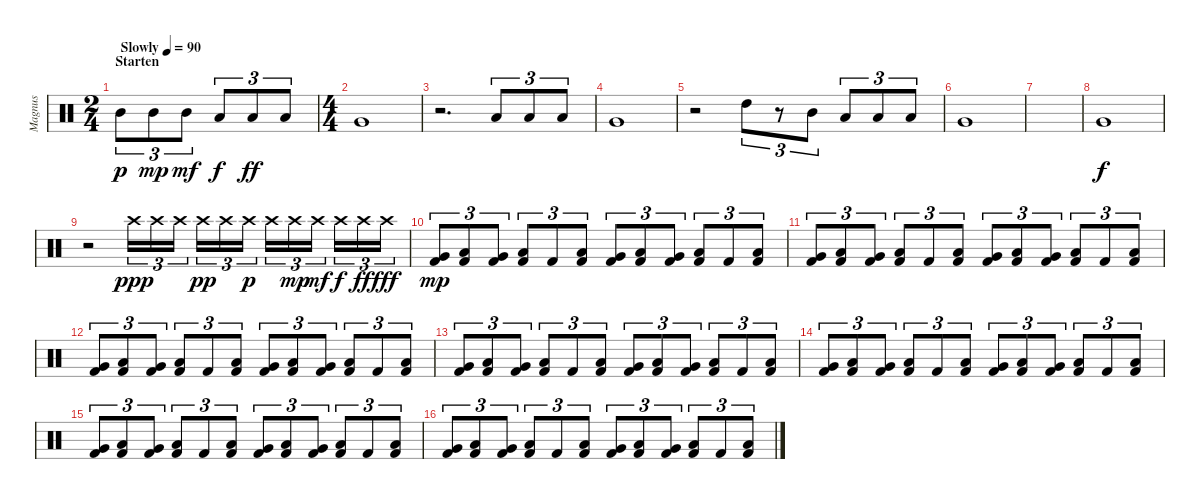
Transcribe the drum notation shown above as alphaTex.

\track ("Magnus" "Magnus") {instrument percussion}
\staff {score}
\articulation defaults
\ts (2 4)
\section ("" "Starten")
\tempo (90 "Slowly")
\tempo 120
\tempo (90 "Slowly")
\clef neutral
\ks c "Mid Tom (hit)".8{tu (3 2) dy p volume 15} "Mid Tom (hit)".8{tu (3 2) dy mp} "Mid Tom (hit)".8{tu (3 2) dy mf} "Low Tom (hit)".8{tu (3 2) dy f} "Low Tom (hit)".8{tu (3 2) dy ff} "Low Tom (hit)".8{tu (3 2)}
|
\ts (4 4)
"Very Low Tom (hit)".1 |
r.2{d} "Low Tom (hit)".8{tu (3 2)} "Low Tom (hit)".8{tu (3 2)} "Low Tom (hit)".8{tu (3 2)} |
"Very Low Tom (hit)".1 |
r.2 "High Tom (hit)".8{tu (3 2)} r.8{tu (3 2)} "Mid Tom (hit)".8{tu (3 2)} "Low Tom (hit)".8{tu (3 2)} "Low Tom (hit)".8{tu (3 2)} "Low Tom (hit)".8{tu (3 2)} |
"Very Low Tom (hit)".1 |
|
"Very Low Tom (hit)".1{dy f} |
r.2 "Crash high (hit)".16{tu (3 2) dy ppp volume 12} "Crash high (hit)".16{tu (3 2)} "Crash high (hit)".16{tu (3 2) beam splitsecondary} "Crash high (hit)".16{tu (3 2) dy pp} "Crash high (hit)".16{tu (3 2)} "Crash high (hit)".16{tu (3 2) dy p} "Crash high (hit)".16{tu (3 2)} "Crash high (hit)".16{tu (3 2) dy mp} "Crash high (hit)".16{tu (3 2) dy mf beam splitsecondary} "Crash high (hit)".16{tu (3 2) dy f} "Crash high (hit)".16{tu (3 2) dy ff} "Crash high (hit)".16{tu (3 2) dy fff} |
("Very Low Tom (hit)" "Kick (hit) 2").8{tu (3 2) dy mp} ("Low Tom (hit)" "Kick (hit) 2").8{tu (3 2)} ("Very Low Tom (hit)" "Kick (hit) 2").8{tu (3 2)} ("Low Floor Tom (hit)" "Kick (hit) 2").8{tu (3 2)} "Kick (hit) 2".8{tu (3 2)} ("Low Floor Tom (hit)" "Kick (hit) 2").8{tu (3 2)} ("Very Low Tom (hit)" "Kick (hit) 2").8{tu (3 2)} ("Low Tom (hit)" "Kick (hit) 2").8{tu (3 2)} ("Very Low Tom (hit)" "Kick (hit) 2").8{tu (3 2)} ("Low Floor Tom (hit)" "Kick (hit) 2").8{tu (3 2)} "Kick (hit) 2".8{tu (3 2)} ("Low Floor Tom (hit)" "Kick (hit) 2").8{tu (3 2)} |
("Very Low Tom (hit)" "Kick (hit) 2").8{tu (3 2)} ("Low Tom (hit)" "Kick (hit) 2").8{tu (3 2)} ("Very Low Tom (hit)" "Kick (hit) 2").8{tu (3 2)} ("Low Floor Tom (hit)" "Kick (hit) 2").8{tu (3 2)} "Kick (hit) 2".8{tu (3 2)} ("Low Floor Tom (hit)" "Kick (hit) 2").8{tu (3 2)} ("Very Low Tom (hit)" "Kick (hit) 2").8{tu (3 2)} ("Low Tom (hit)" "Kick (hit) 2").8{tu (3 2)} ("Very Low Tom (hit)" "Kick (hit) 2").8{tu (3 2)} ("Low Floor Tom (hit)" "Kick (hit) 2").8{tu (3 2)} "Kick (hit) 2".8{tu (3 2)} ("Low Floor Tom (hit)" "Kick (hit) 2").8{tu (3 2)} |
("Very Low Tom (hit)" "Kick (hit) 2").8{tu (3 2)} ("Low Tom (hit)" "Kick (hit) 2").8{tu (3 2)} ("Very Low Tom (hit)" "Kick (hit) 2").8{tu (3 2)} ("Low Floor Tom (hit)" "Kick (hit) 2").8{tu (3 2)} "Kick (hit) 2".8{tu (3 2)} ("Low Floor Tom (hit)" "Kick (hit) 2").8{tu (3 2)} ("Very Low Tom (hit)" "Kick (hit) 2").8{tu (3 2)} ("Low Tom (hit)" "Kick (hit) 2").8{tu (3 2)} ("Very Low Tom (hit)" "Kick (hit) 2").8{tu (3 2)} ("Low Floor Tom (hit)" "Kick (hit) 2").8{tu (3 2)} "Kick (hit) 2".8{tu (3 2)} ("Low Floor Tom (hit)" "Kick (hit) 2").8{tu (3 2)} |
("Very Low Tom (hit)" "Kick (hit) 2").8{tu (3 2)} ("Low Tom (hit)" "Kick (hit) 2").8{tu (3 2)} ("Very Low Tom (hit)" "Kick (hit) 2").8{tu (3 2)} ("Low Floor Tom (hit)" "Kick (hit) 2").8{tu (3 2)} "Kick (hit) 2".8{tu (3 2)} ("Low Floor Tom (hit)" "Kick (hit) 2").8{tu (3 2)} ("Very Low Tom (hit)" "Kick (hit) 2").8{tu (3 2)} ("Low Tom (hit)" "Kick (hit) 2").8{tu (3 2)} ("Very Low Tom (hit)" "Kick (hit) 2").8{tu (3 2)} ("Low Floor Tom (hit)" "Kick (hit) 2").8{tu (3 2)} "Kick (hit) 2".8{tu (3 2)} ("Low Floor Tom (hit)" "Kick (hit) 2").8{tu (3 2)} |
("Very Low Tom (hit)" "Kick (hit) 2").8{tu (3 2)} ("Low Tom (hit)" "Kick (hit) 2").8{tu (3 2)} ("Very Low Tom (hit)" "Kick (hit) 2").8{tu (3 2)} ("Low Floor Tom (hit)" "Kick (hit) 2").8{tu (3 2)} "Kick (hit) 2".8{tu (3 2)} ("Low Floor Tom (hit)" "Kick (hit) 2").8{tu (3 2)} ("Very Low Tom (hit)" "Kick (hit) 2").8{tu (3 2)} ("Low Tom (hit)" "Kick (hit) 2").8{tu (3 2)} ("Very Low Tom (hit)" "Kick (hit) 2").8{tu (3 2)} ("Low Floor Tom (hit)" "Kick (hit) 2").8{tu (3 2)} "Kick (hit) 2".8{tu (3 2)} ("Low Floor Tom (hit)" "Kick (hit) 2").8{tu (3 2)} |
("Very Low Tom (hit)" "Kick (hit) 2").8{tu (3 2)} ("Low Tom (hit)" "Kick (hit) 2").8{tu (3 2)} ("Very Low Tom (hit)" "Kick (hit) 2").8{tu (3 2)} ("Low Floor Tom (hit)" "Kick (hit) 2").8{tu (3 2)} "Kick (hit) 2".8{tu (3 2)} ("Low Floor Tom (hit)" "Kick (hit) 2").8{tu (3 2)} ("Very Low Tom (hit)" "Kick (hit) 2").8{tu (3 2)} ("Low Tom (hit)" "Kick (hit) 2").8{tu (3 2)} ("Very Low Tom (hit)" "Kick (hit) 2").8{tu (3 2)} ("Low Floor Tom (hit)" "Kick (hit) 2").8{tu (3 2)} "Kick (hit) 2".8{tu (3 2)} ("Low Floor Tom (hit)" "Kick (hit) 2").8{tu (3 2)} |
("Very Low Tom (hit)" "Kick (hit) 2").8{tu (3 2)} ("Low Tom (hit)" "Kick (hit) 2").8{tu (3 2)} ("Very Low Tom (hit)" "Kick (hit) 2").8{tu (3 2)} ("Low Floor Tom (hit)" "Kick (hit) 2").8{tu (3 2)} "Kick (hit) 2".8{tu (3 2)} ("Low Floor Tom (hit)" "Kick (hit) 2").8{tu (3 2)} ("Very Low Tom (hit)" "Kick (hit) 2").8{tu (3 2)} ("Low Tom (hit)" "Kick (hit) 2").8{tu (3 2)} ("Very Low Tom (hit)" "Kick (hit) 2").8{tu (3 2)} ("Low Floor Tom (hit)" "Kick (hit) 2").8{tu (3 2)} "Kick (hit) 2".8{tu (3 2)} ("Low Floor Tom (hit)" "Kick (hit) 2").8{tu (3 2)}
